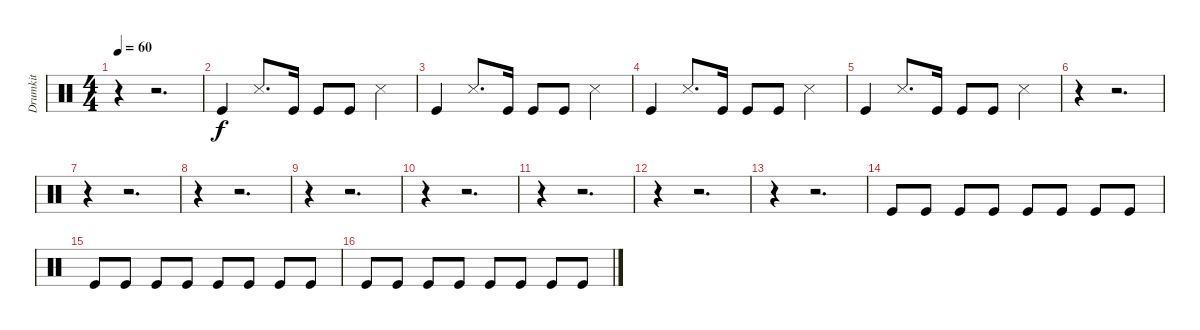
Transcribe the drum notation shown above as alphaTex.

\track ("Drumkit" "Drumkit") {instrument percussion}
\staff {score}
\articulation defaults
\ts (4 4)
\tempo 60
\clef neutral
\ks c
r.4{dy f} r.2{d} |
"Kick (hit)".4 "Snare (side stick) 3".8{d} "Kick (hit)".16 "Kick (hit)".8 "Kick (hit)".8 "Snare (side stick) 3".4 |
"Kick (hit)".4 "Snare (side stick) 3".8{d} "Kick (hit)".16 "Kick (hit)".8 "Kick (hit)".8 "Snare (side stick) 3".4 |
"Kick (hit)".4 "Snare (side stick) 3".8{d} "Kick (hit)".16 "Kick (hit)".8 "Kick (hit)".8 "Snare (side stick) 3".4 |
"Kick (hit)".4 "Snare (side stick) 3".8{d} "Kick (hit)".16 "Kick (hit)".8 "Kick (hit)".8 "Snare (side stick) 3".4 |
r.4 r.2{d} |
r.4 r.2{d} |
r.4 r.2{d} |
r.4 r.2{d} |
r.4 r.2{d} |
r.4 r.2{d} |
r.4 r.2{d} |
r.4 r.2{d} |
"Kick (hit)".8 "Kick (hit)".8 "Kick (hit)".8 "Kick (hit)".8 "Kick (hit)".8 "Kick (hit)".8 "Kick (hit)".8 "Kick (hit)".8 |
"Kick (hit)".8 "Kick (hit)".8 "Kick (hit)".8 "Kick (hit)".8 "Kick (hit)".8 "Kick (hit)".8 "Kick (hit)".8 "Kick (hit)".8 |
"Kick (hit)".8 "Kick (hit)".8 "Kick (hit)".8 "Kick (hit)".8 "Kick (hit)".8 "Kick (hit)".8 "Kick (hit)".8 "Kick (hit)".8
